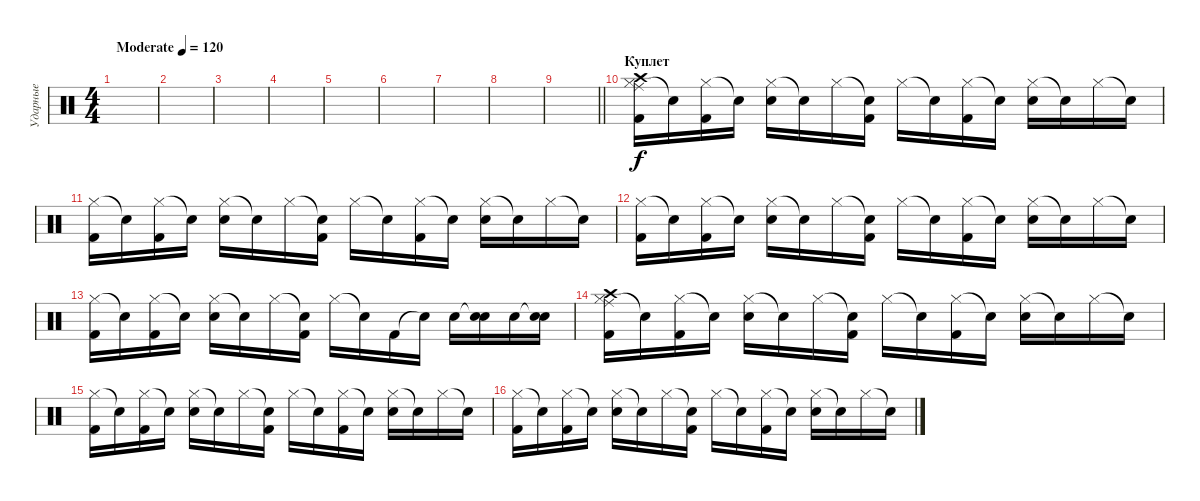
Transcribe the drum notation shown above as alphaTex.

\track ("Ударные" "Ударные") {instrument percussion}
\staff {score}
\articulation defaults
\ts (4 4)
\tempo (120 "Moderate")
\clef neutral
\ks c
|
|
|
|
|
|
|
|
\barLineRight lightlight
|
\section ("" "Куплет")
("Hi-Hat (closed)" "Ride (middle)" "Crash high (hit)" "Kick (hit) 2").16 "Snare (hit)"{t}.16 ("Hi-Hat (closed)" "Kick (hit) 2").16 "Snare (hit)"{t}.16 ("Hi-Hat (closed)" "Snare (hit) 2").16 "Snare (hit)"{t}.16 "Hi-Hat (closed)".16 ("Snare (hit)"{t} "Kick (hit) 2").16 "Hi-Hat (closed)".16 "Snare (hit)"{t}.16 ("Hi-Hat (closed)" "Kick (hit) 2").16 "Snare (hit)"{t}.16 ("Hi-Hat (closed)" "Snare (hit) 2").16 "Snare (hit)"{t}.16 "Hi-Hat (closed)".16 "Snare (hit)"{t}.16 |
("Hi-Hat (closed)" "Kick (hit) 2").16 "Snare (hit)"{t}.16 ("Hi-Hat (closed)" "Kick (hit) 2").16 "Snare (hit)"{t}.16 ("Hi-Hat (closed)" "Snare (hit) 2").16 "Snare (hit)"{t}.16 "Hi-Hat (closed)".16 ("Snare (hit)"{t} "Kick (hit) 2").16 "Hi-Hat (closed)".16 "Snare (hit)"{t}.16 ("Hi-Hat (closed)" "Kick (hit) 2").16 "Snare (hit)"{t}.16 ("Hi-Hat (closed)" "Snare (hit) 2").16 "Snare (hit)"{t}.16 "Hi-Hat (closed)".16 "Snare (hit)"{t}.16 |
("Hi-Hat (closed)" "Kick (hit) 2").16 "Snare (hit)"{t}.16 ("Hi-Hat (closed)" "Kick (hit) 2").16 "Snare (hit)"{t}.16 ("Hi-Hat (closed)" "Snare (hit) 2").16 "Snare (hit)"{t}.16 "Hi-Hat (closed)".16 ("Snare (hit)"{t} "Kick (hit) 2").16 "Hi-Hat (closed)".16 "Snare (hit)"{t}.16 ("Hi-Hat (closed)" "Kick (hit) 2").16 "Snare (hit)"{t}.16 ("Hi-Hat (closed)" "Snare (hit) 2").16 "Snare (hit)"{t}.16 "Hi-Hat (closed)".16 "Snare (hit)"{t}.16 |
("Hi-Hat (closed)" "Kick (hit) 2").16 "Snare (hit)"{t}.16 ("Hi-Hat (closed)" "Kick (hit) 2").16 "Snare (hit)"{t}.16 ("Hi-Hat (closed)" "Snare (hit) 2").16 "Snare (hit)"{t}.16 "Hi-Hat (closed)".16 ("Snare (hit)"{t} "Kick (hit) 2").16 "Hi-Hat (closed)".16 "Snare (hit)"{t}.16 "Kick (hit) 2".16 "Snare (hit)"{t}.16 "Snare (hit) 2".16 ("Snare (hit)"{t} "Snare (hit) 2").16 "Snare (hit) 2".16 ("Snare (hit)"{t} "Snare (hit) 2").16 |
("Hi-Hat (closed)" "Ride (middle)" "Crash high (hit)" "Kick (hit) 2").16 "Snare (hit)"{t}.16 ("Hi-Hat (closed)" "Kick (hit) 2").16 "Snare (hit)"{t}.16 ("Hi-Hat (closed)" "Snare (hit) 2").16 "Snare (hit)"{t}.16 "Hi-Hat (closed)".16 ("Snare (hit)"{t} "Kick (hit) 2").16 "Hi-Hat (closed)".16 "Snare (hit)"{t}.16 ("Hi-Hat (closed)" "Kick (hit) 2").16 "Snare (hit)"{t}.16 ("Hi-Hat (closed)" "Snare (hit) 2").16 "Snare (hit)"{t}.16 "Hi-Hat (closed)".16 "Snare (hit)"{t}.16 |
("Hi-Hat (closed)" "Kick (hit) 2").16 "Snare (hit)"{t}.16 ("Hi-Hat (closed)" "Kick (hit) 2").16 "Snare (hit)"{t}.16 ("Hi-Hat (closed)" "Snare (hit) 2").16 "Snare (hit)"{t}.16 "Hi-Hat (closed)".16 ("Snare (hit)"{t} "Kick (hit) 2").16 "Hi-Hat (closed)".16 "Snare (hit)"{t}.16 ("Hi-Hat (closed)" "Kick (hit) 2").16 "Snare (hit)"{t}.16 ("Hi-Hat (closed)" "Snare (hit) 2").16 "Snare (hit)"{t}.16 "Hi-Hat (closed)".16 "Snare (hit)"{t}.16 |
("Hi-Hat (closed)" "Kick (hit) 2").16 "Snare (hit)"{t}.16 ("Hi-Hat (closed)" "Kick (hit) 2").16 "Snare (hit)"{t}.16 ("Hi-Hat (closed)" "Snare (hit) 2").16 "Snare (hit)"{t}.16 "Hi-Hat (closed)".16 ("Snare (hit)"{t} "Kick (hit) 2").16 "Hi-Hat (closed)".16 "Snare (hit)"{t}.16 ("Hi-Hat (closed)" "Kick (hit) 2").16 "Snare (hit)"{t}.16 ("Hi-Hat (closed)" "Snare (hit) 2").16 "Snare (hit)"{t}.16 "Hi-Hat (closed)".16 "Snare (hit)"{t}.16
